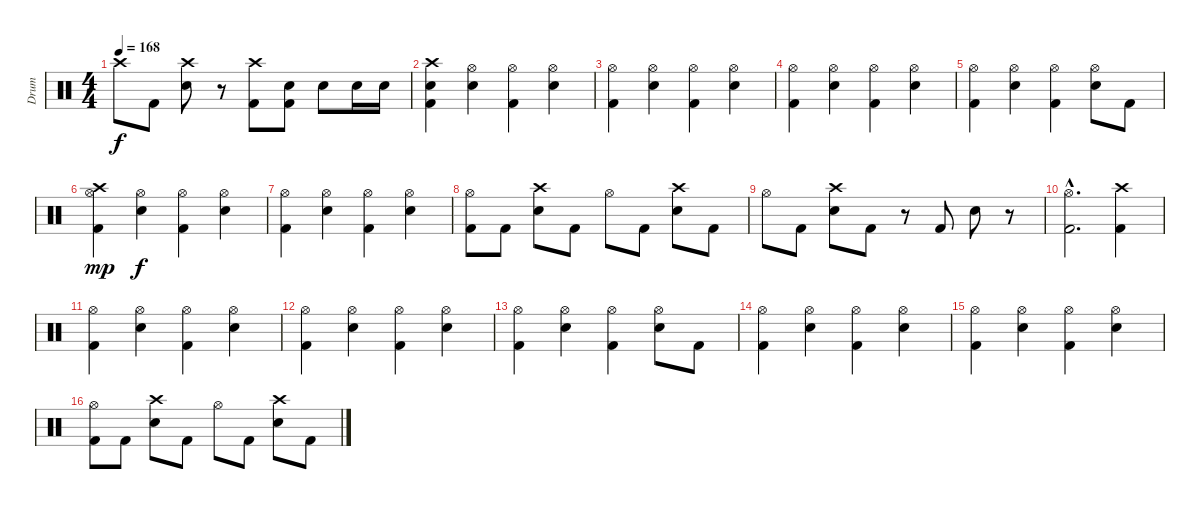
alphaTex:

\track ("Drum" "Drum") {instrument percussion}
\staff {score}
\articulation defaults
\ts (4 4)
\tempo 168
\clef neutral
\ks c "Crash high (hit)".8{dy f} "Kick (hit) 2".8
("Crash high (hit)" "Electric Snare (hit)").8 r.8 ("Crash high (hit)" "Kick (hit) 2").8 ("Electric Snare (hit)" "Kick (hit) 2").8 "Electric Snare (hit)".8 "Electric Snare (hit)".16 "Electric Snare (hit)".16 |
("Crash high (hit)" "Electric Snare (hit)" "Kick (hit) 2").4 ("Hi-Hat (open)" "Electric Snare (hit)").4 ("Hi-Hat (open)" "Kick (hit) 2").4 ("Hi-Hat (open)" "Electric Snare (hit)").4 |
("Hi-Hat (open)" "Kick (hit) 2").4 ("Hi-Hat (open)" "Electric Snare (hit)").4 ("Hi-Hat (open)" "Kick (hit) 2").4 ("Hi-Hat (open)" "Electric Snare (hit)").4 |
("Hi-Hat (open)" "Kick (hit) 2").4 ("Hi-Hat (open)" "Electric Snare (hit)").4 ("Hi-Hat (open)" "Kick (hit) 2").4 ("Hi-Hat (open)" "Electric Snare (hit)").4 |
("Hi-Hat (open)" "Kick (hit) 2").4 ("Hi-Hat (open)" "Electric Snare (hit)").4 ("Hi-Hat (open)" "Kick (hit) 2").4 ("Hi-Hat (open)" "Electric Snare (hit)").8 "Kick (hit) 2".8 |
("Crash high (hit)" "Hi-Hat (open)" "Kick (hit) 2").4{dy mp} ("Hi-Hat (open)" "Electric Snare (hit)").4{dy f} ("Hi-Hat (open)" "Kick (hit) 2").4 ("Hi-Hat (open)" "Electric Snare (hit)").4 |
("Hi-Hat (open)" "Kick (hit) 2").4 ("Hi-Hat (open)" "Electric Snare (hit)").4 ("Hi-Hat (open)" "Kick (hit) 2").4 ("Hi-Hat (open)" "Electric Snare (hit)").4 |
("Hi-Hat (open)" "Kick (hit) 2").8 "Kick (hit) 2".8 ("Crash high (hit)" "Electric Snare (hit)").8 "Kick (hit) 2".8 "Hi-Hat (open)".8 "Kick (hit) 2".8 ("Crash high (hit)" "Electric Snare (hit)").8 "Kick (hit) 2".8 |
"Hi-Hat (open)".8 "Kick (hit) 2".8 ("Crash high (hit)" "Electric Snare (hit)").8 "Kick (hit) 2".8 r.8 "Kick (hit) 2".8 "Electric Snare (hit)".8 r.8 |
("Hi-Hat (open)"{hac} "Kick (hit) 2"{hac}).2{d} ("Crash high (hit)" "Kick (hit) 2").4 |
("Hi-Hat (open)" "Kick (hit) 2").4 ("Hi-Hat (open)" "Electric Snare (hit)").4 ("Hi-Hat (open)" "Kick (hit) 2").4 ("Hi-Hat (open)" "Electric Snare (hit)").4 |
("Hi-Hat (open)" "Kick (hit) 2").4 ("Hi-Hat (open)" "Electric Snare (hit)").4 ("Hi-Hat (open)" "Kick (hit) 2").4 ("Hi-Hat (open)" "Electric Snare (hit)").4 |
("Hi-Hat (open)" "Kick (hit) 2").4 ("Hi-Hat (open)" "Electric Snare (hit)").4 ("Hi-Hat (open)" "Kick (hit) 2").4 ("Hi-Hat (open)" "Electric Snare (hit)").8 "Kick (hit) 2".8 |
("Hi-Hat (open)" "Kick (hit) 2").4 ("Hi-Hat (open)" "Electric Snare (hit)").4 ("Hi-Hat (open)" "Kick (hit) 2").4 ("Hi-Hat (open)" "Electric Snare (hit)").4 |
("Hi-Hat (open)" "Kick (hit) 2").4 ("Hi-Hat (open)" "Electric Snare (hit)").4 ("Hi-Hat (open)" "Kick (hit) 2").4 ("Hi-Hat (open)" "Electric Snare (hit)").4 |
("Hi-Hat (open)" "Kick (hit) 2").8 "Kick (hit) 2".8 ("Crash high (hit)" "Electric Snare (hit)").8 "Kick (hit) 2".8 "Hi-Hat (open)".8 "Kick (hit) 2".8 ("Crash high (hit)" "Electric Snare (hit)").8 "Kick (hit) 2".8
